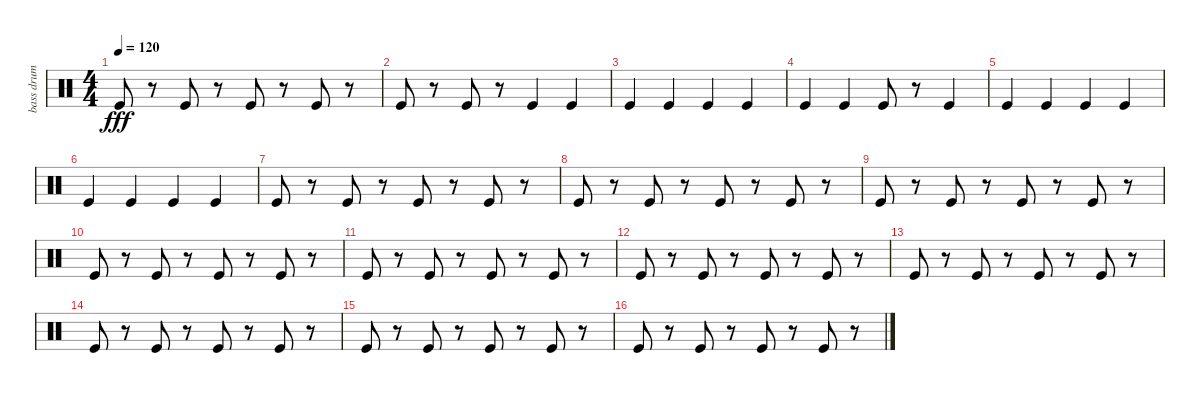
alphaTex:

\track ("bass drum" "bass drum") {instrument percussion}
\staff {score}
\articulation defaults
\ts (4 4)
\tempo 120
\clef neutral
\ks c "Kick (hit)".8{dy fff}
r.8 "Kick (hit)".8 r.8 "Kick (hit)".8 r.8 "Kick (hit)".8 r.8 |
"Kick (hit)".8 r.8 "Kick (hit)".8 r.8 "Kick (hit)".4 "Kick (hit)".4 |
"Kick (hit)".4 "Kick (hit)".4 "Kick (hit)".4 "Kick (hit)".4 |
"Kick (hit)".4 "Kick (hit)".4 "Kick (hit)".8 r.8 "Kick (hit)".4 |
"Kick (hit)".4 "Kick (hit)".4 "Kick (hit)".4 "Kick (hit)".4 |
"Kick (hit)".4 "Kick (hit)".4 "Kick (hit)".4 "Kick (hit)".4 |
"Kick (hit)".8 r.8 "Kick (hit)".8 r.8 "Kick (hit)".8 r.8 "Kick (hit)".8 r.8 |
"Kick (hit)".8 r.8 "Kick (hit)".8 r.8 "Kick (hit)".8 r.8 "Kick (hit)".8 r.8 |
"Kick (hit)".8 r.8 "Kick (hit)".8 r.8 "Kick (hit)".8 r.8 "Kick (hit)".8 r.8 |
"Kick (hit)".8 r.8 "Kick (hit)".8 r.8 "Kick (hit)".8 r.8 "Kick (hit)".8 r.8 |
"Kick (hit)".8 r.8 "Kick (hit)".8 r.8 "Kick (hit)".8 r.8 "Kick (hit)".8 r.8 |
"Kick (hit)".8 r.8 "Kick (hit)".8 r.8 "Kick (hit)".8 r.8 "Kick (hit)".8 r.8 |
"Kick (hit)".8 r.8 "Kick (hit)".8 r.8 "Kick (hit)".8 r.8 "Kick (hit)".8 r.8 |
"Kick (hit)".8 r.8 "Kick (hit)".8 r.8 "Kick (hit)".8 r.8 "Kick (hit)".8 r.8 |
"Kick (hit)".8 r.8 "Kick (hit)".8 r.8 "Kick (hit)".8 r.8 "Kick (hit)".8 r.8 |
"Kick (hit)".8 r.8 "Kick (hit)".8 r.8 "Kick (hit)".8 r.8 "Kick (hit)".8 r.8
